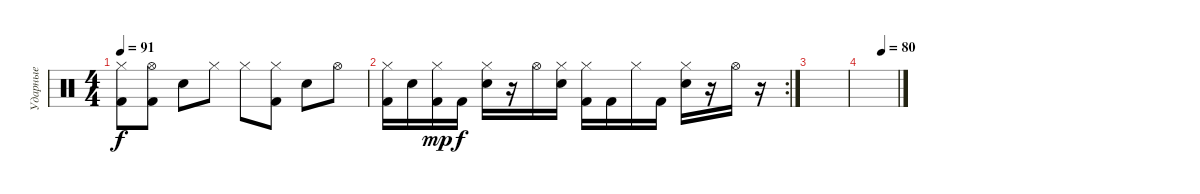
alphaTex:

\track ("Ударные" "Ударные") {instrument percussion}
\staff {score}
\articulation defaults
\ts (4 4)
\tempo 91
\clef neutral
\ks c
("Hi-Hat (closed)" "Kick (hit) 2").8{dy f} ("Hi-Hat (open)" "Kick (hit) 2").8 "Snare (hit) 2".8 "Hi-Hat (closed)".8 "Hi-Hat (closed)".8 ("Hi-Hat (closed)" "Kick (hit) 2").8 "Snare (hit) 2".8 "Hi-Hat (open)".8 |
\rc 2
("Hi-Hat (closed)" "Kick (hit) 2").16 "Snare (hit) 2".16 ("Hi-Hat (closed)" "Kick (hit) 2").16{dy mp} "Kick (hit) 2".16{dy f} ("Hi-Hat (closed)" "Snare (hit) 2").16 r.16 "Hi-Hat (open)".16 ("Hi-Hat (closed)" "Snare (hit) 2").16 ("Hi-Hat (closed)" "Kick (hit) 2").16 "Kick (hit) 2".16 "Hi-Hat (closed)".16 "Kick (hit) 2".16 ("Hi-Hat (closed)" "Snare (hit) 2").16 r.16 "Hi-Hat (open)".16 r.16 |
|
\tempo (80 0.5625)
